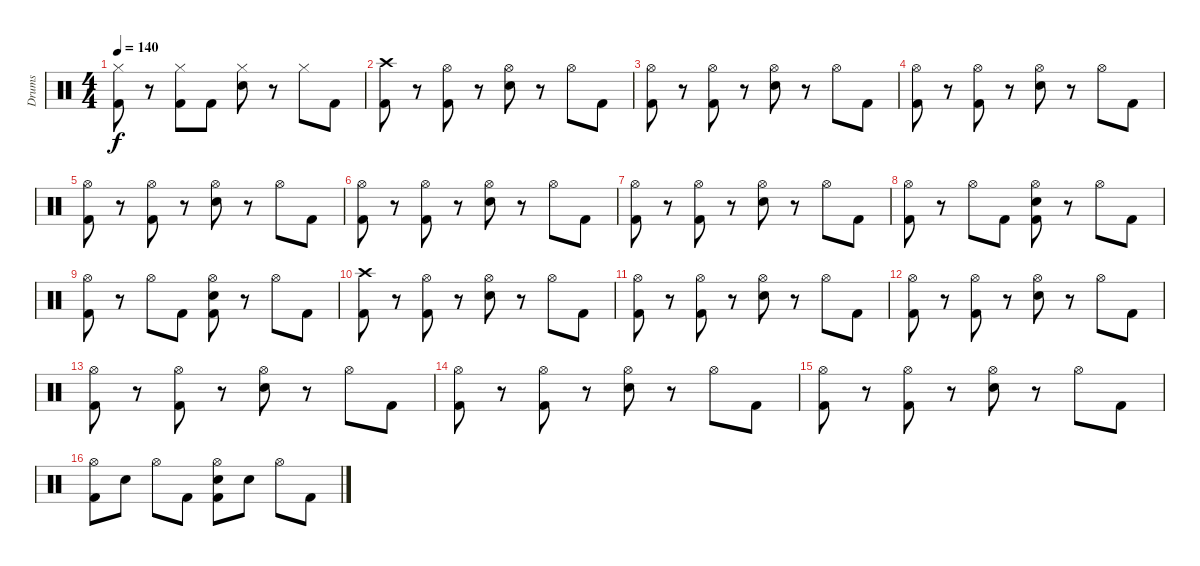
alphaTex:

\track ("Drums" "Drums") {instrument percussion}
\staff {score}
\articulation defaults
\ts (4 4)
\tempo 140
\clef neutral
\ks c
("Hi-Hat (closed)" "Kick (hit) 2").8{dy f} r.8 ("Hi-Hat (closed)" "Kick (hit) 2").8 "Kick (hit) 2".8 ("Hi-Hat (closed)" "Snare (hit) 2").8 r.8 "Hi-Hat (closed)".8 "Kick (hit) 2".8 |
("Crash high (hit)" "Kick (hit) 2").8 r.8 ("Hi-Hat (open)" "Kick (hit) 2").8 r.8 ("Hi-Hat (open)" "Snare (hit) 2").8 r.8 "Hi-Hat (open)".8 "Kick (hit) 2".8 |
("Hi-Hat (open)" "Kick (hit) 2").8 r.8 ("Hi-Hat (open)" "Kick (hit) 2").8 r.8 ("Hi-Hat (open)" "Snare (hit) 2").8 r.8 "Hi-Hat (open)".8 "Kick (hit) 2".8 |
("Hi-Hat (open)" "Kick (hit) 2").8 r.8 ("Hi-Hat (open)" "Kick (hit) 2").8 r.8 ("Hi-Hat (open)" "Snare (hit) 2").8 r.8 "Hi-Hat (open)".8 "Kick (hit) 2".8 |
("Hi-Hat (open)" "Kick (hit) 2").8 r.8 ("Hi-Hat (open)" "Kick (hit) 2").8 r.8 ("Hi-Hat (open)" "Snare (hit) 2").8 r.8 "Hi-Hat (open)".8 "Kick (hit) 2".8 |
("Hi-Hat (open)" "Kick (hit) 2").8 r.8 ("Hi-Hat (open)" "Kick (hit) 2").8 r.8 ("Hi-Hat (open)" "Snare (hit) 2").8 r.8 "Hi-Hat (open)".8 "Kick (hit) 2".8 |
("Hi-Hat (open)" "Kick (hit) 2").8 r.8 ("Hi-Hat (open)" "Kick (hit) 2").8 r.8 ("Hi-Hat (open)" "Snare (hit) 2").8 r.8 "Hi-Hat (open)".8 "Kick (hit) 2".8 |
("Hi-Hat (open)" "Kick (hit) 2").8 r.8 "Hi-Hat (open)".8 "Kick (hit) 2".8 ("Hi-Hat (open)" "Snare (hit) 2" "Kick (hit) 2").8 r.8 "Hi-Hat (open)".8 "Kick (hit) 2".8 |
("Hi-Hat (open)" "Kick (hit) 2").8 r.8 "Hi-Hat (open)".8 "Kick (hit) 2".8 ("Hi-Hat (open)" "Snare (hit) 2" "Kick (hit) 2").8 r.8 "Hi-Hat (open)".8 "Kick (hit) 2".8 |
("Crash high (hit)" "Kick (hit) 2").8 r.8 ("Hi-Hat (open)" "Kick (hit) 2").8 r.8 ("Hi-Hat (open)" "Snare (hit) 2").8 r.8 "Hi-Hat (open)".8 "Kick (hit) 2".8 |
("Hi-Hat (open)" "Kick (hit) 2").8 r.8 ("Hi-Hat (open)" "Kick (hit) 2").8 r.8 ("Hi-Hat (open)" "Snare (hit) 2").8 r.8 "Hi-Hat (open)".8 "Kick (hit) 2".8 |
("Hi-Hat (open)" "Kick (hit) 2").8 r.8 ("Hi-Hat (open)" "Kick (hit) 2").8 r.8 ("Hi-Hat (open)" "Snare (hit) 2").8 r.8 "Hi-Hat (open)".8 "Kick (hit) 2".8 |
("Hi-Hat (open)" "Kick (hit) 2").8 r.8 ("Hi-Hat (open)" "Kick (hit) 2").8 r.8 ("Hi-Hat (open)" "Snare (hit) 2").8 r.8 "Hi-Hat (open)".8 "Kick (hit) 2".8 |
("Hi-Hat (open)" "Kick (hit) 2").8 r.8 ("Hi-Hat (open)" "Kick (hit) 2").8 r.8 ("Hi-Hat (open)" "Snare (hit) 2").8 r.8 "Hi-Hat (open)".8 "Kick (hit) 2".8 |
("Hi-Hat (open)" "Kick (hit) 2").8 r.8 ("Hi-Hat (open)" "Kick (hit) 2").8 r.8 ("Hi-Hat (open)" "Snare (hit) 2").8 r.8 "Hi-Hat (open)".8 "Kick (hit) 2".8 |
("Hi-Hat (open)" "Kick (hit) 2").8 "Snare (hit) 2".8 "Hi-Hat (open)".8 "Kick (hit) 2".8 ("Hi-Hat (open)" "Snare (hit) 2" "Kick (hit) 2").8 "Snare (hit) 2".8 "Hi-Hat (open)".8 "Kick (hit) 2".8
